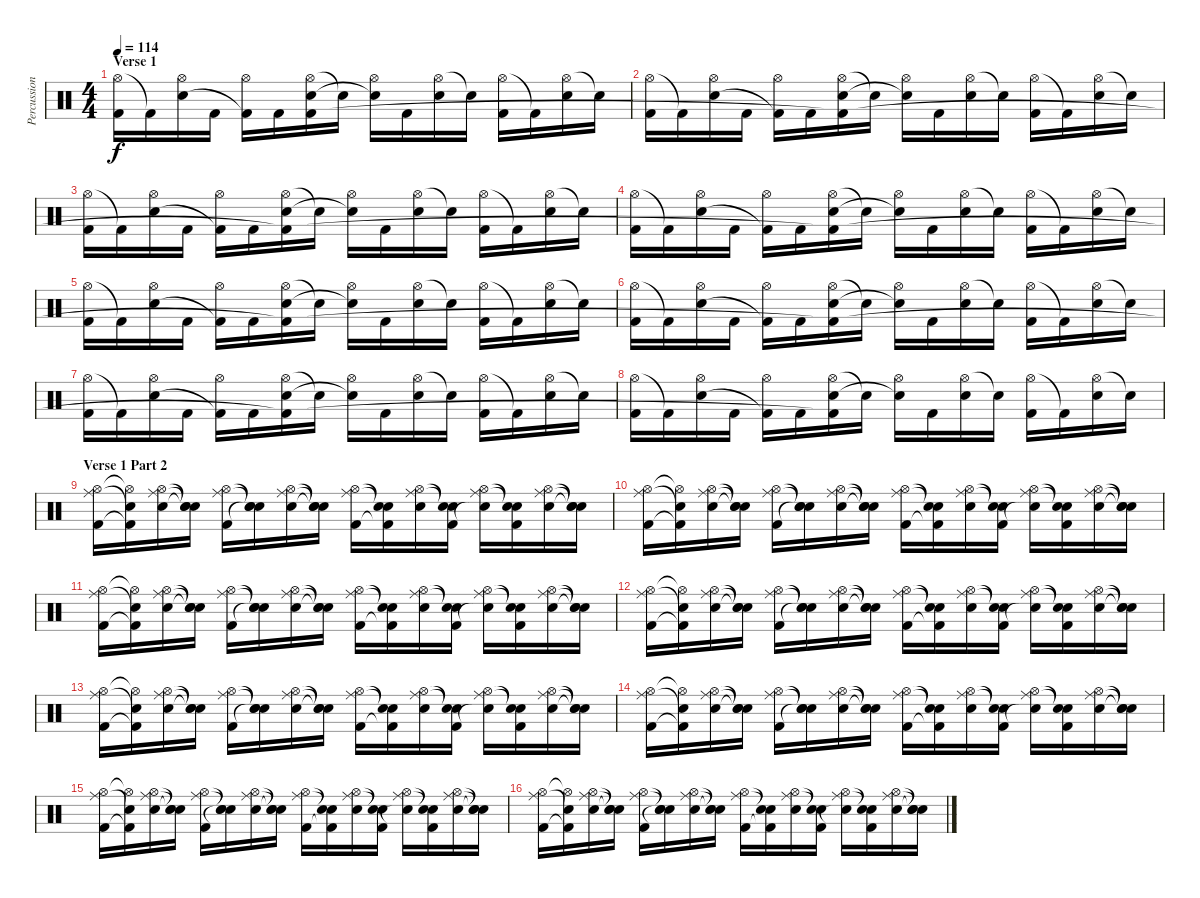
\track ("Percussion" "Percussion") {instrument percussion}
\staff {score}
\articulation defaults
\ts (4 4)
\section ("" "Verse 1")
\tempo 114
\clef neutral
\ks c
("Hi-Hat (open)" "Kick (hit) 2").16{dy f} "Kick (hit) 2"{t}.16 ("Hi-Hat (open)" "Snare (hit) 2").16 "Kick (hit) 2".16 ("Hi-Hat (open)" "Kick (hit) 2"{t}).16 "Kick (hit) 2".16 ("Hi-Hat (open)" "Snare (hit) 2" "Kick (hit) 2"{t}).16 "Snare (hit) 2"{t}.16 ("Hi-Hat (open)" "Snare (hit) 2"{t}).16 "Kick (hit) 2".16 ("Hi-Hat (open)" "Snare (hit) 2").16 "Snare (hit) 2"{t}.16 ("Hi-Hat (open)" "Kick (hit) 2").16 "Kick (hit) 2"{t}.16 ("Hi-Hat (open)" "Snare (hit) 2").16 "Snare (hit) 2"{t}.16 |
("Hi-Hat (open)" "Kick (hit) 2").16 "Kick (hit) 2"{t}.16 ("Hi-Hat (open)" "Snare (hit) 2").16 "Kick (hit) 2".16 ("Hi-Hat (open)" "Kick (hit) 2"{t}).16 "Kick (hit) 2".16 ("Hi-Hat (open)" "Snare (hit) 2" "Kick (hit) 2"{t}).16 "Snare (hit) 2"{t}.16 ("Hi-Hat (open)" "Snare (hit) 2"{t}).16 "Kick (hit) 2".16 ("Hi-Hat (open)" "Snare (hit) 2").16 "Snare (hit) 2"{t}.16 ("Hi-Hat (open)" "Kick (hit) 2").16 "Kick (hit) 2"{t}.16 ("Hi-Hat (open)" "Snare (hit) 2").16 "Snare (hit) 2"{t}.16 |
("Hi-Hat (open)" "Kick (hit) 2").16 "Kick (hit) 2"{t}.16 ("Hi-Hat (open)" "Snare (hit) 2").16 "Kick (hit) 2".16 ("Hi-Hat (open)" "Kick (hit) 2"{t}).16 "Kick (hit) 2".16 ("Hi-Hat (open)" "Snare (hit) 2" "Kick (hit) 2"{t}).16 "Snare (hit) 2"{t}.16 ("Hi-Hat (open)" "Snare (hit) 2"{t}).16 "Kick (hit) 2".16 ("Hi-Hat (open)" "Snare (hit) 2").16 "Snare (hit) 2"{t}.16 ("Hi-Hat (open)" "Kick (hit) 2").16 "Kick (hit) 2"{t}.16 ("Hi-Hat (open)" "Snare (hit) 2").16 "Snare (hit) 2"{t}.16 |
("Hi-Hat (open)" "Kick (hit) 2").16 "Kick (hit) 2"{t}.16 ("Hi-Hat (open)" "Snare (hit) 2").16 "Kick (hit) 2".16 ("Hi-Hat (open)" "Kick (hit) 2"{t}).16 "Kick (hit) 2".16 ("Hi-Hat (open)" "Snare (hit) 2" "Kick (hit) 2"{t}).16 "Snare (hit) 2"{t}.16 ("Hi-Hat (open)" "Snare (hit) 2"{t}).16 "Kick (hit) 2".16 ("Hi-Hat (open)" "Snare (hit) 2").16 "Snare (hit) 2"{t}.16 ("Hi-Hat (open)" "Kick (hit) 2").16 "Kick (hit) 2"{t}.16 ("Hi-Hat (open)" "Snare (hit) 2").16 "Snare (hit) 2"{t}.16 |
("Hi-Hat (open)" "Kick (hit) 2").16 "Kick (hit) 2"{t}.16 ("Hi-Hat (open)" "Snare (hit) 2").16 "Kick (hit) 2".16 ("Hi-Hat (open)" "Kick (hit) 2"{t}).16 "Kick (hit) 2".16 ("Hi-Hat (open)" "Snare (hit) 2" "Kick (hit) 2"{t}).16 "Snare (hit) 2"{t}.16 ("Hi-Hat (open)" "Snare (hit) 2"{t}).16 "Kick (hit) 2".16 ("Hi-Hat (open)" "Snare (hit) 2").16 "Snare (hit) 2"{t}.16 ("Hi-Hat (open)" "Kick (hit) 2").16 "Kick (hit) 2"{t}.16 ("Hi-Hat (open)" "Snare (hit) 2").16 "Snare (hit) 2"{t}.16 |
("Hi-Hat (open)" "Kick (hit) 2").16 "Kick (hit) 2"{t}.16 ("Hi-Hat (open)" "Snare (hit) 2").16 "Kick (hit) 2".16 ("Hi-Hat (open)" "Kick (hit) 2"{t}).16 "Kick (hit) 2".16 ("Hi-Hat (open)" "Snare (hit) 2" "Kick (hit) 2"{t}).16 "Snare (hit) 2"{t}.16 ("Hi-Hat (open)" "Snare (hit) 2"{t}).16 "Kick (hit) 2".16 ("Hi-Hat (open)" "Snare (hit) 2").16 "Snare (hit) 2"{t}.16 ("Hi-Hat (open)" "Kick (hit) 2").16 "Kick (hit) 2"{t}.16 ("Hi-Hat (open)" "Snare (hit) 2").16 "Snare (hit) 2"{t}.16 |
("Hi-Hat (open)" "Kick (hit) 2").16 "Kick (hit) 2"{t}.16 ("Hi-Hat (open)" "Snare (hit) 2").16 "Kick (hit) 2".16 ("Hi-Hat (open)" "Kick (hit) 2"{t}).16 "Kick (hit) 2".16 ("Hi-Hat (open)" "Snare (hit) 2" "Kick (hit) 2"{t}).16 "Snare (hit) 2"{t}.16 ("Hi-Hat (open)" "Snare (hit) 2"{t}).16 "Kick (hit) 2".16 ("Hi-Hat (open)" "Snare (hit) 2").16 "Snare (hit) 2"{t}.16 ("Hi-Hat (open)" "Kick (hit) 2").16 "Kick (hit) 2"{t}.16 ("Hi-Hat (open)" "Snare (hit) 2").16 "Snare (hit) 2"{t}.16 |
("Hi-Hat (open)" "Kick (hit) 2").16 "Kick (hit) 2"{t}.16 ("Hi-Hat (open)" "Snare (hit) 2").16 "Kick (hit) 2".16 ("Hi-Hat (open)" "Kick (hit) 2"{t}).16 "Kick (hit) 2".16 ("Hi-Hat (open)" "Snare (hit) 2" "Kick (hit) 2"{t}).16 "Snare (hit) 2"{t}.16 ("Hi-Hat (open)" "Snare (hit) 2"{t}).16 "Kick (hit) 2".16 ("Hi-Hat (open)" "Snare (hit) 2").16 "Snare (hit) 2"{t}.16 ("Hi-Hat (open)" "Kick (hit) 2").16 "Kick (hit) 2"{t}.16 ("Hi-Hat (open)" "Snare (hit) 2").16 "Snare (hit) 2"{t}.16 |
\section ("" "Verse 1 Part 2")
("Hi-Hat (open)" "Ride (middle)" "Kick (hit) 2").16 ("Hi-Hat (open)"{t} "Snare (hit)"{t} "Kick (hit) 2"{t}).16 ("Hi-Hat (open)" "Ride (middle)" "Snare (hit) 2").16 ("Snare (hit)"{t} "Snare (hit)"{t} "Snare (hit)"{t}).16 ("Hi-Hat (open)" "Ride (middle)" "Kick (hit) 2").16 ("Snare (hit)"{t} "Snare (hit)"{t} "Snare (hit)"{t}).16 ("Hi-Hat (open)" "Ride (middle)" "Snare (hit) 2").16 ("Snare (hit)"{t} "Snare (hit)"{t} "Snare (hit)"{t}).16 ("Hi-Hat (open)" "Ride (middle)" "Kick (hit) 2").16 ("Snare (hit)"{t} "Snare (hit)"{t} "Kick (hit) 2"{t}).16 ("Hi-Hat (open)" "Ride (middle)" "Snare (hit) 2").16 ("Snare (hit)"{t} "Snare (hit)"{t} "Kick (hit) 2").16 ("Hi-Hat (open)" "Ride (middle)" "Snare (hit)"{t}).16 ("Snare (hit)"{t} "Snare (hit)"{t} "Kick (hit) 2").16 ("Hi-Hat (open)" "Ride (middle)" "Snare (hit) 2").16 ("Snare (hit)"{t} "Snare (hit)"{t} "Snare (hit)"{t}).16 |
("Hi-Hat (open)" "Ride (middle)" "Kick (hit) 2").16 ("Hi-Hat (open)"{t} "Snare (hit)"{t} "Kick (hit) 2"{t}).16 ("Hi-Hat (open)" "Ride (middle)" "Snare (hit) 2").16 ("Snare (hit)"{t} "Snare (hit)"{t} "Snare (hit)"{t}).16 ("Hi-Hat (open)" "Ride (middle)" "Kick (hit) 2").16 ("Snare (hit)"{t} "Snare (hit)"{t} "Snare (hit)"{t}).16 ("Hi-Hat (open)" "Ride (middle)" "Snare (hit) 2").16 ("Snare (hit)"{t} "Snare (hit)"{t} "Snare (hit)"{t}).16 ("Hi-Hat (open)" "Ride (middle)" "Kick (hit) 2").16 ("Snare (hit)"{t} "Snare (hit)"{t} "Kick (hit) 2"{t}).16 ("Hi-Hat (open)" "Ride (middle)" "Snare (hit) 2").16 ("Snare (hit)"{t} "Snare (hit)"{t} "Kick (hit) 2").16 ("Hi-Hat (open)" "Ride (middle)" "Snare (hit)"{t}).16 ("Snare (hit)"{t} "Snare (hit)"{t} "Kick (hit) 2").16 ("Hi-Hat (open)" "Ride (middle)" "Snare (hit) 2").16 ("Snare (hit)"{t} "Snare (hit)"{t} "Snare (hit)"{t}).16 |
("Hi-Hat (open)" "Ride (middle)" "Kick (hit) 2").16 ("Hi-Hat (open)"{t} "Snare (hit)"{t} "Kick (hit) 2"{t}).16 ("Hi-Hat (open)" "Ride (middle)" "Snare (hit) 2").16 ("Snare (hit)"{t} "Snare (hit)"{t} "Snare (hit)"{t}).16 ("Hi-Hat (open)" "Ride (middle)" "Kick (hit) 2").16 ("Snare (hit)"{t} "Snare (hit)"{t} "Snare (hit)"{t}).16 ("Hi-Hat (open)" "Ride (middle)" "Snare (hit) 2").16 ("Snare (hit)"{t} "Snare (hit)"{t} "Snare (hit)"{t}).16 ("Hi-Hat (open)" "Ride (middle)" "Kick (hit) 2").16 ("Snare (hit)"{t} "Snare (hit)"{t} "Kick (hit) 2"{t}).16 ("Hi-Hat (open)" "Ride (middle)" "Snare (hit) 2").16 ("Snare (hit)"{t} "Snare (hit)"{t} "Kick (hit) 2").16 ("Hi-Hat (open)" "Ride (middle)" "Snare (hit)"{t}).16 ("Snare (hit)"{t} "Snare (hit)"{t} "Kick (hit) 2").16 ("Hi-Hat (open)" "Ride (middle)" "Snare (hit) 2").16 ("Snare (hit)"{t} "Snare (hit)"{t} "Snare (hit)"{t}).16 |
("Hi-Hat (open)" "Ride (middle)" "Kick (hit) 2").16 ("Hi-Hat (open)"{t} "Snare (hit)"{t} "Kick (hit) 2"{t}).16 ("Hi-Hat (open)" "Ride (middle)" "Snare (hit) 2").16 ("Snare (hit)"{t} "Snare (hit)"{t} "Snare (hit)"{t}).16 ("Hi-Hat (open)" "Ride (middle)" "Kick (hit) 2").16 ("Snare (hit)"{t} "Snare (hit)"{t} "Snare (hit)"{t}).16 ("Hi-Hat (open)" "Ride (middle)" "Snare (hit) 2").16 ("Snare (hit)"{t} "Snare (hit)"{t} "Snare (hit)"{t}).16 ("Hi-Hat (open)" "Ride (middle)" "Kick (hit) 2").16 ("Snare (hit)"{t} "Snare (hit)"{t} "Kick (hit) 2"{t}).16 ("Hi-Hat (open)" "Ride (middle)" "Snare (hit) 2").16 ("Snare (hit)"{t} "Snare (hit)"{t} "Kick (hit) 2").16 ("Hi-Hat (open)" "Ride (middle)" "Snare (hit)"{t}).16 ("Snare (hit)"{t} "Snare (hit)"{t} "Kick (hit) 2").16 ("Hi-Hat (open)" "Ride (middle)" "Snare (hit) 2").16 ("Snare (hit)"{t} "Snare (hit)"{t} "Snare (hit)"{t}).16 |
("Hi-Hat (open)" "Ride (middle)" "Kick (hit) 2").16 ("Hi-Hat (open)"{t} "Snare (hit)"{t} "Kick (hit) 2"{t}).16 ("Hi-Hat (open)" "Ride (middle)" "Snare (hit) 2").16 ("Snare (hit)"{t} "Snare (hit)"{t} "Snare (hit)"{t}).16 ("Hi-Hat (open)" "Ride (middle)" "Kick (hit) 2").16 ("Snare (hit)"{t} "Snare (hit)"{t} "Snare (hit)"{t}).16 ("Hi-Hat (open)" "Ride (middle)" "Snare (hit) 2").16 ("Snare (hit)"{t} "Snare (hit)"{t} "Snare (hit)"{t}).16 ("Hi-Hat (open)" "Ride (middle)" "Kick (hit) 2").16 ("Snare (hit)"{t} "Snare (hit)"{t} "Kick (hit) 2"{t}).16 ("Hi-Hat (open)" "Ride (middle)" "Snare (hit) 2").16 ("Snare (hit)"{t} "Snare (hit)"{t} "Kick (hit) 2").16 ("Hi-Hat (open)" "Ride (middle)" "Snare (hit)"{t}).16 ("Snare (hit)"{t} "Snare (hit)"{t} "Kick (hit) 2").16 ("Hi-Hat (open)" "Ride (middle)" "Snare (hit) 2").16 ("Snare (hit)"{t} "Snare (hit)"{t} "Snare (hit)"{t}).16 |
("Hi-Hat (open)" "Ride (middle)" "Kick (hit) 2").16 ("Hi-Hat (open)"{t} "Snare (hit)"{t} "Kick (hit) 2"{t}).16 ("Hi-Hat (open)" "Ride (middle)" "Snare (hit) 2").16 ("Snare (hit)"{t} "Snare (hit)"{t} "Snare (hit)"{t}).16 ("Hi-Hat (open)" "Ride (middle)" "Kick (hit) 2").16 ("Snare (hit)"{t} "Snare (hit)"{t} "Snare (hit)"{t}).16 ("Hi-Hat (open)" "Ride (middle)" "Snare (hit) 2").16 ("Snare (hit)"{t} "Snare (hit)"{t} "Snare (hit)"{t}).16 ("Hi-Hat (open)" "Ride (middle)" "Kick (hit) 2").16 ("Snare (hit)"{t} "Snare (hit)"{t} "Kick (hit) 2"{t}).16 ("Hi-Hat (open)" "Ride (middle)" "Snare (hit) 2").16 ("Snare (hit)"{t} "Snare (hit)"{t} "Kick (hit) 2").16 ("Hi-Hat (open)" "Ride (middle)" "Snare (hit)"{t}).16 ("Snare (hit)"{t} "Snare (hit)"{t} "Kick (hit) 2").16 ("Hi-Hat (open)" "Ride (middle)" "Snare (hit) 2").16 ("Snare (hit)"{t} "Snare (hit)"{t} "Snare (hit)"{t}).16 |
("Hi-Hat (open)" "Ride (middle)" "Kick (hit) 2").16 ("Hi-Hat (open)"{t} "Snare (hit)"{t} "Kick (hit) 2"{t}).16 ("Hi-Hat (open)" "Ride (middle)" "Snare (hit) 2").16 ("Snare (hit)"{t} "Snare (hit)"{t} "Snare (hit)"{t}).16 ("Hi-Hat (open)" "Ride (middle)" "Kick (hit) 2").16 ("Snare (hit)"{t} "Snare (hit)"{t} "Snare (hit)"{t}).16 ("Hi-Hat (open)" "Ride (middle)" "Snare (hit) 2").16 ("Snare (hit)"{t} "Snare (hit)"{t} "Snare (hit)"{t}).16 ("Hi-Hat (open)" "Ride (middle)" "Kick (hit) 2").16 ("Snare (hit)"{t} "Snare (hit)"{t} "Kick (hit) 2"{t}).16 ("Hi-Hat (open)" "Ride (middle)" "Snare (hit) 2").16 ("Snare (hit)"{t} "Snare (hit)"{t} "Kick (hit) 2").16 ("Hi-Hat (open)" "Ride (middle)" "Snare (hit)"{t}).16 ("Snare (hit)"{t} "Snare (hit)"{t} "Kick (hit) 2").16 ("Hi-Hat (open)" "Ride (middle)" "Snare (hit) 2").16 ("Snare (hit)"{t} "Snare (hit)"{t} "Snare (hit)"{t}).16 |
("Hi-Hat (open)" "Ride (middle)" "Kick (hit) 2").16 ("Hi-Hat (open)"{t} "Snare (hit)"{t} "Kick (hit) 2"{t}).16 ("Hi-Hat (open)" "Ride (middle)" "Snare (hit) 2").16 ("Snare (hit)"{t} "Snare (hit)"{t} "Snare (hit)"{t}).16 ("Hi-Hat (open)" "Ride (middle)" "Kick (hit) 2").16 ("Snare (hit)"{t} "Snare (hit)"{t} "Snare (hit)"{t}).16 ("Hi-Hat (open)" "Ride (middle)" "Snare (hit) 2").16 ("Snare (hit)"{t} "Snare (hit)"{t} "Snare (hit)"{t}).16 ("Hi-Hat (open)" "Ride (middle)" "Kick (hit) 2").16 ("Snare (hit)"{t} "Snare (hit)"{t} "Kick (hit) 2"{t}).16 ("Hi-Hat (open)" "Ride (middle)" "Snare (hit) 2").16 ("Snare (hit)"{t} "Snare (hit)"{t} "Kick (hit) 2").16 ("Hi-Hat (open)" "Ride (middle)" "Snare (hit)"{t}).16 ("Snare (hit)"{t} "Snare (hit)"{t} "Kick (hit) 2").16 ("Hi-Hat (open)" "Ride (middle)" "Snare (hit) 2").16 ("Snare (hit)"{t} "Snare (hit)"{t} "Snare (hit)"{t}).16
